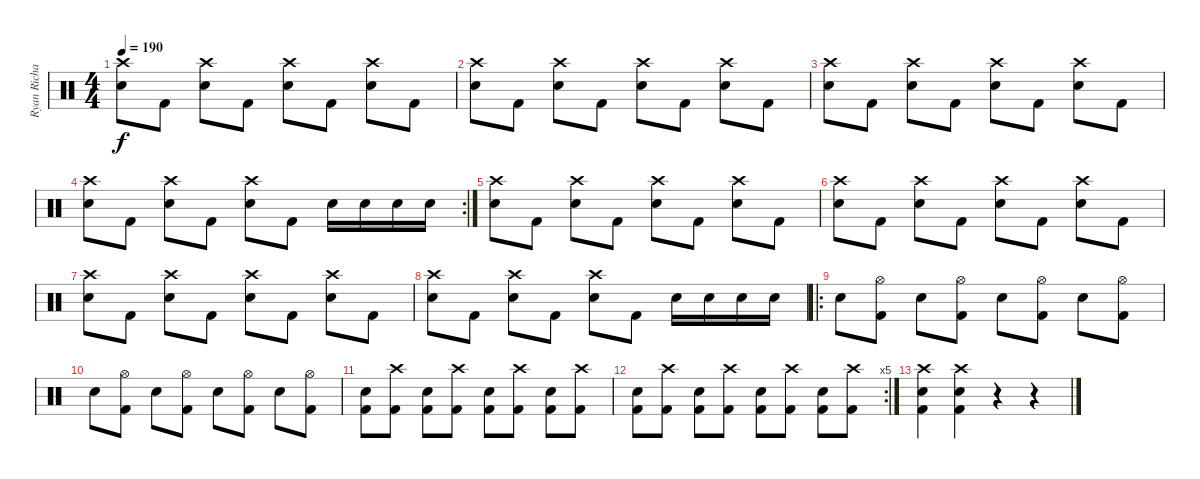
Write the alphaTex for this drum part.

\track ("Ryan Richards" "Ryan Richa") {instrument percussion}
\staff {score}
\articulation defaults
\ts (4 4)
\tempo 190
\clef neutral
\ks c
("Crash high (hit)" "Snare (hit) 2").8{dy f} "Kick (hit) 2".8 ("Crash high (hit)" "Snare (hit) 2").8 "Kick (hit) 2".8 ("Crash high (hit)" "Snare (hit) 2").8 "Kick (hit) 2".8 ("Crash high (hit)" "Snare (hit) 2").8 "Kick (hit) 2".8 |
("Crash high (hit)" "Snare (hit) 2").8 "Kick (hit) 2".8 ("Crash high (hit)" "Snare (hit) 2").8 "Kick (hit) 2".8 ("Crash high (hit)" "Snare (hit) 2").8 "Kick (hit) 2".8 ("Crash high (hit)" "Snare (hit) 2").8 "Kick (hit) 2".8 |
("Crash high (hit)" "Snare (hit) 2").8 "Kick (hit) 2".8 ("Crash high (hit)" "Snare (hit) 2").8 "Kick (hit) 2".8 ("Crash high (hit)" "Snare (hit) 2").8 "Kick (hit) 2".8 ("Crash high (hit)" "Snare (hit) 2").8 "Kick (hit) 2".8 |
\rc 2
("Crash high (hit)" "Snare (hit) 2").8 "Kick (hit) 2".8 ("Crash high (hit)" "Snare (hit) 2").8 "Kick (hit) 2".8 ("Crash high (hit)" "Snare (hit) 2").8 "Kick (hit) 2".8 "Snare (hit) 2".16 "Snare (hit) 2".16 "Snare (hit) 2".16 "Snare (hit) 2".16 |
("Crash high (hit)" "Snare (hit) 2").8 "Kick (hit) 2".8 ("Crash high (hit)" "Snare (hit) 2").8 "Kick (hit) 2".8 ("Crash high (hit)" "Snare (hit) 2").8 "Kick (hit) 2".8 ("Crash high (hit)" "Snare (hit) 2").8 "Kick (hit) 2".8 |
("Crash high (hit)" "Snare (hit) 2").8 "Kick (hit) 2".8 ("Crash high (hit)" "Snare (hit) 2").8 "Kick (hit) 2".8 ("Crash high (hit)" "Snare (hit) 2").8 "Kick (hit) 2".8 ("Crash high (hit)" "Snare (hit) 2").8 "Kick (hit) 2".8 |
("Crash high (hit)" "Snare (hit) 2").8 "Kick (hit) 2".8 ("Crash high (hit)" "Snare (hit) 2").8 "Kick (hit) 2".8 ("Crash high (hit)" "Snare (hit) 2").8 "Kick (hit) 2".8 ("Crash high (hit)" "Snare (hit) 2").8 "Kick (hit) 2".8 |
("Crash high (hit)" "Snare (hit) 2").8 "Kick (hit) 2".8 ("Crash high (hit)" "Snare (hit) 2").8 "Kick (hit) 2".8 ("Crash high (hit)" "Snare (hit) 2").8 "Kick (hit) 2".8 "Snare (hit) 2".16 "Snare (hit) 2".16 "Snare (hit) 2".16 "Snare (hit) 2".16 |
\ro "Snare (hit) 2".8
("Hi-Hat (open)" "Kick (hit) 2").8 "Snare (hit) 2".8 ("Hi-Hat (open)" "Kick (hit) 2").8 "Snare (hit) 2".8 ("Hi-Hat (open)" "Kick (hit) 2").8 "Snare (hit) 2".8 ("Hi-Hat (open)" "Kick (hit) 2").8 |
"Snare (hit) 2".8 ("Hi-Hat (open)" "Kick (hit) 2").8 "Snare (hit) 2".8 ("Hi-Hat (open)" "Kick (hit) 2").8 "Snare (hit) 2".8 ("Hi-Hat (open)" "Kick (hit) 2").8 "Snare (hit) 2".8 ("Hi-Hat (open)" "Kick (hit) 2").8 |
("Snare (hit) 2" "Kick (hit) 2").8 ("Crash high (hit)" "Kick (hit) 2").8 ("Snare (hit) 2" "Kick (hit) 2").8 ("Crash high (hit)" "Kick (hit) 2").8 ("Snare (hit) 2" "Kick (hit) 2").8 ("Crash high (hit)" "Kick (hit) 2").8 ("Snare (hit) 2" "Kick (hit) 2").8 ("Crash high (hit)" "Kick (hit) 2").8 |
\rc 5
("Snare (hit) 2" "Kick (hit) 2").8 ("Crash high (hit)" "Kick (hit) 2").8 ("Snare (hit) 2" "Kick (hit) 2").8 ("Crash high (hit)" "Kick (hit) 2").8 ("Snare (hit) 2" "Kick (hit) 2").8 ("Crash high (hit)" "Kick (hit) 2").8 ("Snare (hit) 2" "Kick (hit) 2").8 ("Crash high (hit)" "Kick (hit) 2").8 |
("Crash high (hit)" "Snare (hit) 2" "Kick (hit) 2").4 ("Crash high (hit)" "Snare (hit) 2" "Kick (hit) 2").4 r.4 r.4
